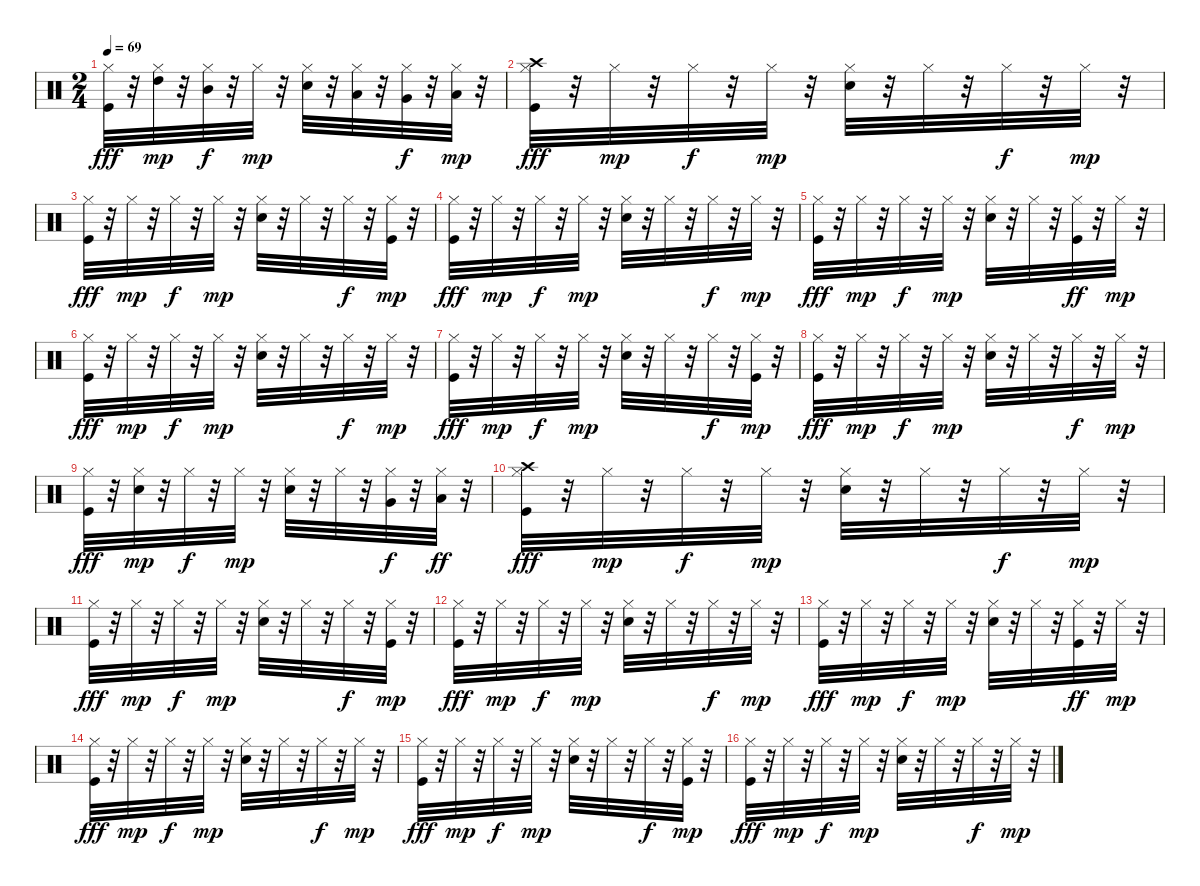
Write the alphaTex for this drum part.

\track "" {instrument percussion}
\staff {score}
\articulation defaults
\ts (2 4)
\tempo 69
\clef neutral
\ks c
("Kick (hit)" "Hi-Hat (closed)").32{dy fff} r.32 ("Hi-Hat (closed)" "High Tom (hit)").32{dy mp} r.32 ("Hi-Hat (closed)" "Mid Tom (hit)").32{dy f} r.32 "Hi-Hat (closed)".32{dy mp} r.32 ("Metronome (bell)" "Hi-Hat (closed)").32 r.32 ("Low Tom (hit)" "Hi-Hat (closed)").32 r.32 ("Very Low Tom (hit)" "Hi-Hat (closed)").32{dy f} r.32 ("Low Floor Tom (hit)" "Hi-Hat (closed)").32{dy mp} r.32 |
("Crash high (hit)" "Hi-Hat (closed)" "Kick (hit)").32{dy fff} r.32 "Hi-Hat (closed)".32{dy mp} r.32 "Hi-Hat (closed)".32{dy f} r.32 "Hi-Hat (closed)".32{dy mp} r.32 ("Metronome (bell)" "Hi-Hat (closed)").32 r.32 "Hi-Hat (closed)".32 r.32 "Hi-Hat (closed)".32{dy f} r.32 "Hi-Hat (closed)".32{dy mp} r.32 |
("Kick (hit)" "Hi-Hat (closed)").32{dy fff} r.32 "Hi-Hat (closed)".32{dy mp} r.32 "Hi-Hat (closed)".32{dy f} r.32 "Hi-Hat (closed)".32{dy mp} r.32 ("Metronome (bell)" "Hi-Hat (closed)").32 r.32 "Hi-Hat (closed)".32 r.32 "Hi-Hat (closed)".32{dy f} r.32 ("Kick (hit)" "Hi-Hat (closed)").32{dy mp} r.32 |
("Hi-Hat (closed)" "Kick (hit)").32{dy fff} r.32 "Hi-Hat (closed)".32{dy mp} r.32 "Hi-Hat (closed)".32{dy f} r.32 "Hi-Hat (closed)".32{dy mp} r.32 ("Metronome (bell)" "Hi-Hat (closed)").32 r.32 "Hi-Hat (closed)".32 r.32 "Hi-Hat (closed)".32{dy f} r.32 "Hi-Hat (closed)".32{dy mp} r.32 |
("Kick (hit)" "Hi-Hat (closed)").32{dy fff} r.32 "Hi-Hat (closed)".32{dy mp} r.32 "Hi-Hat (closed)".32{dy f} r.32 "Hi-Hat (closed)".32{dy mp} r.32 ("Metronome (bell)" "Hi-Hat (closed)").32 r.32 "Hi-Hat (closed)".32 r.32 ("Hi-Hat (closed)" "Kick (hit)").32{dy ff} r.32 "Hi-Hat (closed)".32{dy mp} r.32 |
("Hi-Hat (closed)" "Kick (hit)").32{dy fff} r.32 "Hi-Hat (closed)".32{dy mp} r.32 "Hi-Hat (closed)".32{dy f} r.32 "Hi-Hat (closed)".32{dy mp} r.32 ("Metronome (bell)" "Hi-Hat (closed)").32 r.32 "Hi-Hat (closed)".32 r.32 "Hi-Hat (closed)".32{dy f} r.32 "Hi-Hat (closed)".32{dy mp} r.32 |
("Kick (hit)" "Hi-Hat (closed)").32{dy fff} r.32 "Hi-Hat (closed)".32{dy mp} r.32 "Hi-Hat (closed)".32{dy f} r.32 "Hi-Hat (closed)".32{dy mp} r.32 ("Metronome (bell)" "Hi-Hat (closed)").32 r.32 "Hi-Hat (closed)".32 r.32 "Hi-Hat (closed)".32{dy f} r.32 ("Kick (hit)" "Hi-Hat (closed)").32{dy mp} r.32 |
("Hi-Hat (closed)" "Kick (hit)").32{dy fff} r.32 "Hi-Hat (closed)".32{dy mp} r.32 "Hi-Hat (closed)".32{dy f} r.32 "Hi-Hat (closed)".32{dy mp} r.32 ("Metronome (bell)" "Hi-Hat (closed)").32 r.32 "Hi-Hat (closed)".32 r.32 "Hi-Hat (closed)".32{dy f} r.32 "Hi-Hat (closed)".32{dy mp} r.32 |
("Kick (hit)" "Hi-Hat (closed)").32{dy fff} r.32 ("Hi-Hat (closed)" "Metronome (bell)").32{dy mp} r.32 "Hi-Hat (closed)".32{dy f} r.32 "Hi-Hat (closed)".32{dy mp} r.32 ("Metronome (bell)" "Hi-Hat (closed)").32 r.32 "Hi-Hat (closed)".32 r.32 ("Hi-Hat (closed)" "Very Low Tom (hit)").32{dy f} r.32 ("Hi-Hat (closed)" "Low Floor Tom (hit)").32{dy ff} r.32 |
("Crash high (hit)" "Hi-Hat (closed)" "Kick (hit)").32{dy fff} r.32 "Hi-Hat (closed)".32{dy mp} r.32 "Hi-Hat (closed)".32{dy f} r.32 "Hi-Hat (closed)".32{dy mp} r.32 ("Metronome (bell)" "Hi-Hat (closed)").32 r.32 "Hi-Hat (closed)".32 r.32 "Hi-Hat (closed)".32{dy f} r.32 "Hi-Hat (closed)".32{dy mp} r.32 |
("Kick (hit)" "Hi-Hat (closed)").32{dy fff} r.32 "Hi-Hat (closed)".32{dy mp} r.32 "Hi-Hat (closed)".32{dy f} r.32 "Hi-Hat (closed)".32{dy mp} r.32 ("Metronome (bell)" "Hi-Hat (closed)").32 r.32 "Hi-Hat (closed)".32 r.32 "Hi-Hat (closed)".32{dy f} r.32 ("Kick (hit)" "Hi-Hat (closed)").32{dy mp} r.32 |
("Hi-Hat (closed)" "Kick (hit)").32{dy fff} r.32 "Hi-Hat (closed)".32{dy mp} r.32 "Hi-Hat (closed)".32{dy f} r.32 "Hi-Hat (closed)".32{dy mp} r.32 ("Metronome (bell)" "Hi-Hat (closed)").32 r.32 "Hi-Hat (closed)".32 r.32 "Hi-Hat (closed)".32{dy f} r.32 "Hi-Hat (closed)".32{dy mp} r.32 |
("Kick (hit)" "Hi-Hat (closed)").32{dy fff} r.32 "Hi-Hat (closed)".32{dy mp} r.32 "Hi-Hat (closed)".32{dy f} r.32 "Hi-Hat (closed)".32{dy mp} r.32 ("Metronome (bell)" "Hi-Hat (closed)").32 r.32 "Hi-Hat (closed)".32 r.32 ("Hi-Hat (closed)" "Kick (hit)").32{dy ff} r.32 "Hi-Hat (closed)".32{dy mp} r.32 |
("Hi-Hat (closed)" "Kick (hit)").32{dy fff} r.32 "Hi-Hat (closed)".32{dy mp} r.32 "Hi-Hat (closed)".32{dy f} r.32 "Hi-Hat (closed)".32{dy mp} r.32 ("Metronome (bell)" "Hi-Hat (closed)").32 r.32 "Hi-Hat (closed)".32 r.32 "Hi-Hat (closed)".32{dy f} r.32 "Hi-Hat (closed)".32{dy mp} r.32 |
("Kick (hit)" "Hi-Hat (closed)").32{dy fff} r.32 "Hi-Hat (closed)".32{dy mp} r.32 "Hi-Hat (closed)".32{dy f} r.32 "Hi-Hat (closed)".32{dy mp} r.32 ("Metronome (bell)" "Hi-Hat (closed)").32 r.32 "Hi-Hat (closed)".32 r.32 "Hi-Hat (closed)".32{dy f} r.32 ("Kick (hit)" "Hi-Hat (closed)").32{dy mp} r.32 |
("Hi-Hat (closed)" "Kick (hit)").32{dy fff} r.32 "Hi-Hat (closed)".32{dy mp} r.32 "Hi-Hat (closed)".32{dy f} r.32 "Hi-Hat (closed)".32{dy mp} r.32 ("Metronome (bell)" "Hi-Hat (closed)").32 r.32 "Hi-Hat (closed)".32 r.32 "Hi-Hat (closed)".32{dy f} r.32 "Hi-Hat (closed)".32{dy mp} r.32
